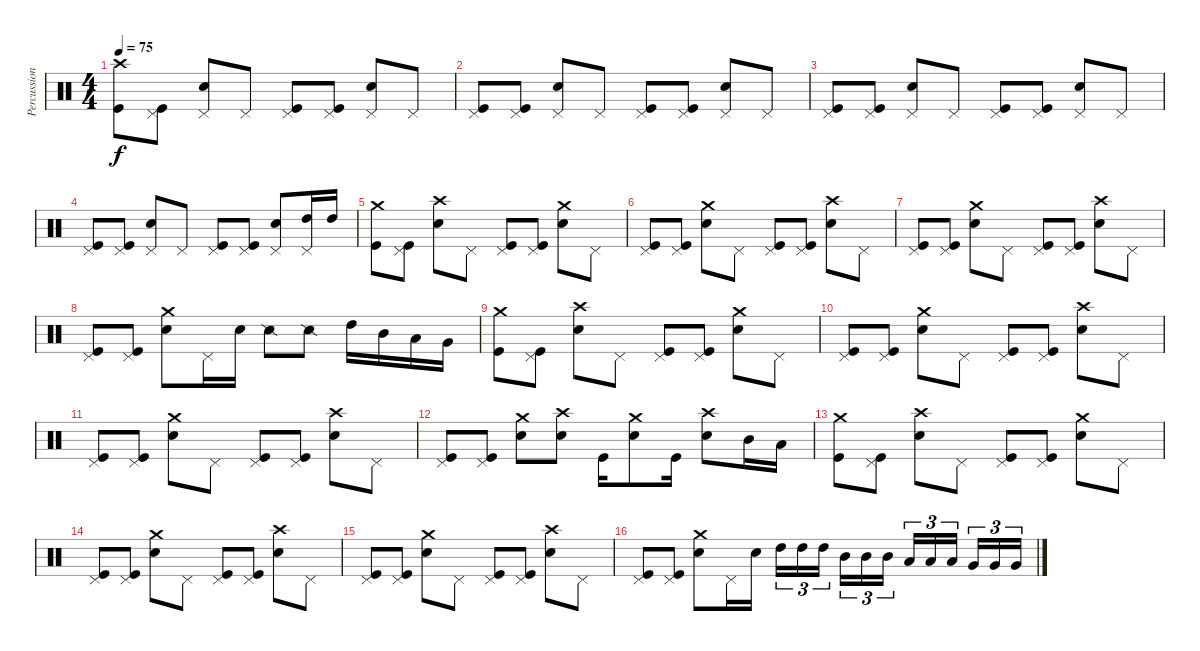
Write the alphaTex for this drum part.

\track ("Percussion" "Percussion") {instrument percussion}
\staff {score}
\articulation defaults
\ts (4 4)
\tempo 75
\clef neutral
\ks c
("Kick (hit)" "Crash high (hit)").8{dy f} ("Kick (hit)" "Pedal Hi-Hat (hit)").8 ("Snare (hit) 2" "Pedal Hi-Hat (hit)").8 "Pedal Hi-Hat (hit)".8 ("Kick (hit)" "Pedal Hi-Hat (hit)").8 ("Kick (hit)" "Pedal Hi-Hat (hit)").8 ("Snare (hit) 2" "Pedal Hi-Hat (hit)").8 "Pedal Hi-Hat (hit)".8 |
("Kick (hit)" "Pedal Hi-Hat (hit)").8 ("Kick (hit)" "Pedal Hi-Hat (hit)").8 ("Snare (hit) 2" "Pedal Hi-Hat (hit)").8 "Pedal Hi-Hat (hit)".8 ("Kick (hit)" "Pedal Hi-Hat (hit)").8 ("Kick (hit)" "Pedal Hi-Hat (hit)").8 ("Snare (hit) 2" "Pedal Hi-Hat (hit)").8 "Pedal Hi-Hat (hit)".8 |
("Kick (hit)" "Pedal Hi-Hat (hit)").8 ("Kick (hit)" "Pedal Hi-Hat (hit)").8 ("Snare (hit) 2" "Pedal Hi-Hat (hit)").8 "Pedal Hi-Hat (hit)".8 ("Kick (hit)" "Pedal Hi-Hat (hit)").8 ("Kick (hit)" "Pedal Hi-Hat (hit)").8 ("Snare (hit) 2" "Pedal Hi-Hat (hit)").8 "Pedal Hi-Hat (hit)".8 |
("Kick (hit)" "Pedal Hi-Hat (hit)").8 ("Kick (hit)" "Pedal Hi-Hat (hit)").8 ("Snare (hit) 2" "Pedal Hi-Hat (hit)").8 "Pedal Hi-Hat (hit)".8 ("Kick (hit)" "Pedal Hi-Hat (hit)").8 ("Kick (hit)" "Pedal Hi-Hat (hit)").8 ("Snare (hit) 2" "Pedal Hi-Hat (hit)").8 ("High Tom (hit)" "Pedal Hi-Hat (hit)").16 "High Tom (hit)".16 |
("Kick (hit)" "Crash medium (hit)").8 ("Kick (hit)" "Pedal Hi-Hat (hit)").8 ("Snare (hit) 2" "Crash high (hit)").8 "Pedal Hi-Hat (hit)".8 ("Kick (hit)" "Pedal Hi-Hat (hit)").8 ("Kick (hit)" "Pedal Hi-Hat (hit)").8 ("Snare (hit) 2" "Crash medium (hit)").8 "Pedal Hi-Hat (hit)".8 |
("Kick (hit)" "Pedal Hi-Hat (hit)").8 ("Kick (hit)" "Pedal Hi-Hat (hit)").8 ("Snare (hit) 2" "Crash medium (hit)").8 "Pedal Hi-Hat (hit)".8 ("Kick (hit)" "Pedal Hi-Hat (hit)").8 ("Kick (hit)" "Pedal Hi-Hat (hit)").8 ("Snare (hit) 2" "Crash high (hit)").8 "Pedal Hi-Hat (hit)".8 |
("Kick (hit)" "Pedal Hi-Hat (hit)").8 ("Kick (hit)" "Pedal Hi-Hat (hit)").8 ("Snare (hit) 2" "Crash medium (hit)").8 "Pedal Hi-Hat (hit)".8 ("Kick (hit)" "Pedal Hi-Hat (hit)").8 ("Kick (hit)" "Pedal Hi-Hat (hit)").8 ("Snare (hit) 2" "Crash high (hit)").8 "Pedal Hi-Hat (hit)".8 |
("Kick (hit)" "Pedal Hi-Hat (hit)").8 ("Kick (hit)" "Pedal Hi-Hat (hit)").8 ("Snare (hit) 2" "Crash medium (hit)").8 "Pedal Hi-Hat (hit)".16 "Snare (hit) 2".16 "Snare (side stick) 2".8 "Snare (side stick) 2".8 "High Tom (hit)".16 "Mid Tom (hit)".16 "Low Tom (hit)".16 "Very Low Tom (hit)".16 |
("Kick (hit)" "Crash medium (hit)").8 ("Kick (hit)" "Pedal Hi-Hat (hit)").8 ("Snare (hit) 2" "Crash high (hit)").8 "Pedal Hi-Hat (hit)".8 ("Kick (hit)" "Pedal Hi-Hat (hit)").8 ("Kick (hit)" "Pedal Hi-Hat (hit)").8 ("Snare (hit) 2" "Crash medium (hit)").8 "Pedal Hi-Hat (hit)".8 |
("Kick (hit)" "Pedal Hi-Hat (hit)").8 ("Kick (hit)" "Pedal Hi-Hat (hit)").8 ("Snare (hit) 2" "Crash medium (hit)").8 "Pedal Hi-Hat (hit)".8 ("Kick (hit)" "Pedal Hi-Hat (hit)").8 ("Kick (hit)" "Pedal Hi-Hat (hit)").8 ("Snare (hit) 2" "Crash high (hit)").8 "Pedal Hi-Hat (hit)".8 |
("Kick (hit)" "Pedal Hi-Hat (hit)").8 ("Kick (hit)" "Pedal Hi-Hat (hit)").8 ("Snare (hit) 2" "Crash medium (hit)").8 "Pedal Hi-Hat (hit)".8 ("Kick (hit)" "Pedal Hi-Hat (hit)").8 ("Kick (hit)" "Pedal Hi-Hat (hit)").8 ("Snare (hit) 2" "Crash high (hit)").8 "Pedal Hi-Hat (hit)".8 |
("Kick (hit)" "Pedal Hi-Hat (hit)").8 ("Kick (hit)" "Pedal Hi-Hat (hit)").8 ("Snare (hit) 2" "Crash medium (hit)").8 ("Snare (hit) 2" "Crash high (hit)").8 "Kick (hit)".16 ("Snare (hit) 2" "Crash medium (hit)").8 "Kick (hit)".16 ("Snare (hit) 2" "Crash high (hit)").8 "Mid Tom (hit)".16 "Low Tom (hit)".16 |
("Kick (hit)" "Crash medium (hit)").8 ("Kick (hit)" "Pedal Hi-Hat (hit)").8 ("Snare (hit) 2" "Crash high (hit)").8 "Pedal Hi-Hat (hit)".8 ("Kick (hit)" "Pedal Hi-Hat (hit)").8 ("Kick (hit)" "Pedal Hi-Hat (hit)").8 ("Snare (hit) 2" "Crash medium (hit)").8 "Pedal Hi-Hat (hit)".8 |
("Kick (hit)" "Pedal Hi-Hat (hit)").8 ("Kick (hit)" "Pedal Hi-Hat (hit)").8 ("Snare (hit) 2" "Crash medium (hit)").8 "Pedal Hi-Hat (hit)".8 ("Kick (hit)" "Pedal Hi-Hat (hit)").8 ("Kick (hit)" "Pedal Hi-Hat (hit)").8 ("Snare (hit) 2" "Crash high (hit)").8 "Pedal Hi-Hat (hit)".8 |
("Kick (hit)" "Pedal Hi-Hat (hit)").8 ("Kick (hit)" "Pedal Hi-Hat (hit)").8 ("Snare (hit) 2" "Crash medium (hit)").8 "Pedal Hi-Hat (hit)".8 ("Kick (hit)" "Pedal Hi-Hat (hit)").8 ("Kick (hit)" "Pedal Hi-Hat (hit)").8 ("Snare (hit) 2" "Crash high (hit)").8 "Pedal Hi-Hat (hit)".8 |
("Kick (hit)" "Pedal Hi-Hat (hit)").8 ("Kick (hit)" "Pedal Hi-Hat (hit)").8 ("Snare (hit) 2" "Crash medium (hit)").8 "Pedal Hi-Hat (hit)".16 "Snare (hit) 2".16 "High Tom (hit)".16{tu (3 2)} "High Tom (hit)".16{tu (3 2)} "High Tom (hit)".16{tu (3 2)} "Mid Tom (hit)".16{tu (3 2)} "Mid Tom (hit)".16{tu (3 2)} "Mid Tom (hit)".16{tu (3 2)} "Low Tom (hit)".16{tu (3 2)} "Low Tom (hit)".16{tu (3 2)} "Low Tom (hit)".16{tu (3 2)} "Very Low Tom (hit)".16{tu (3 2)} "Very Low Tom (hit)".16{tu (3 2)} "Very Low Tom (hit)".16{tu (3 2)}
